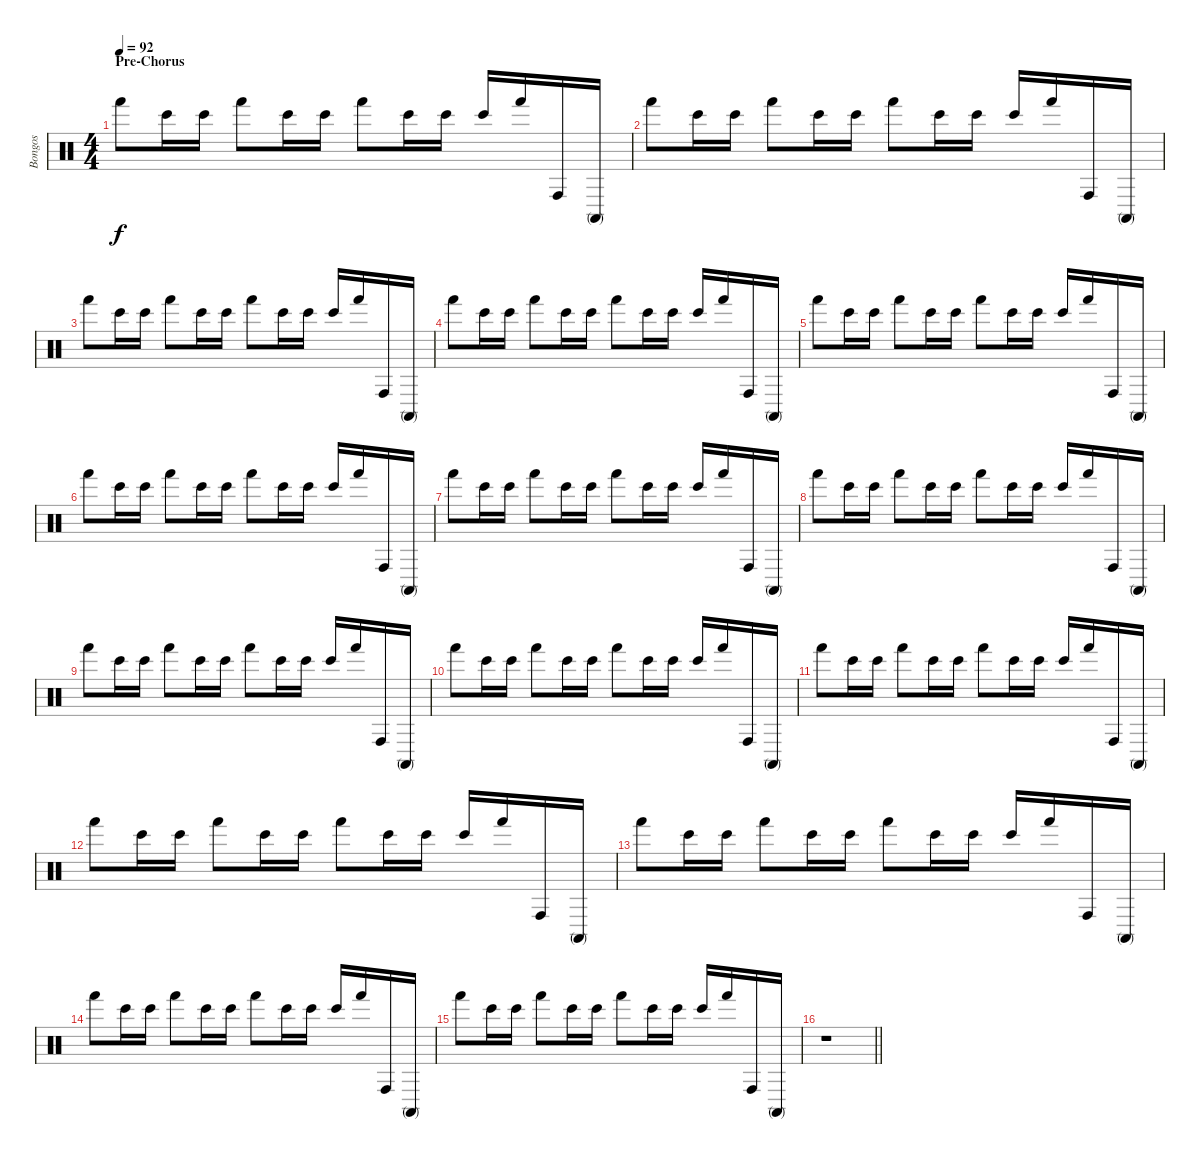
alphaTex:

\track ("Bongos" "Bongos") {instrument percussion}
\staff {score}
\articulation defaults
\ts (4 4)
\section ("" "Pre-Chorus")
\tempo 92
\clef neutral
\ks c "Hand (hit)".8{dy f volume 8} "Bongo High (hit)".16 "Bongo High (hit)".16 "Hand (hit)".8 "Bongo High (hit)".16 "Bongo High (hit)".16 "Hand (hit)".8 "Bongo High (hit)".16 "Bongo High (hit)".16 "Bongo High (hit)".16 "Hand (hit)".16 "Conga high (hit)".16 "Conga high (mute)".16
|
"Hand (hit)".8 "Bongo High (hit)".16 "Bongo High (hit)".16 "Hand (hit)".8 "Bongo High (hit)".16 "Bongo High (hit)".16 "Hand (hit)".8 "Bongo High (hit)".16 "Bongo High (hit)".16 "Bongo High (hit)".16 "Hand (hit)".16 "Conga high (hit)".16 "Conga high (mute)".16 |
"Hand (hit)".8{volume 8} "Bongo High (hit)".16 "Bongo High (hit)".16 "Hand (hit)".8 "Bongo High (hit)".16 "Bongo High (hit)".16 "Hand (hit)".8 "Bongo High (hit)".16 "Bongo High (hit)".16 "Bongo High (hit)".16 "Hand (hit)".16 "Conga high (hit)".16 "Conga high (mute)".16 |
"Hand (hit)".8 "Bongo High (hit)".16 "Bongo High (hit)".16 "Hand (hit)".8 "Bongo High (hit)".16 "Bongo High (hit)".16 "Hand (hit)".8 "Bongo High (hit)".16 "Bongo High (hit)".16 "Bongo High (hit)".16 "Hand (hit)".16 "Conga high (hit)".16 "Conga high (mute)".16 |
"Hand (hit)".8{volume 8} "Bongo High (hit)".16 "Bongo High (hit)".16 "Hand (hit)".8 "Bongo High (hit)".16 "Bongo High (hit)".16 "Hand (hit)".8 "Bongo High (hit)".16 "Bongo High (hit)".16 "Bongo High (hit)".16 "Hand (hit)".16 "Conga high (hit)".16 "Conga high (mute)".16 |
"Hand (hit)".8 "Bongo High (hit)".16 "Bongo High (hit)".16 "Hand (hit)".8 "Bongo High (hit)".16 "Bongo High (hit)".16 "Hand (hit)".8 "Bongo High (hit)".16 "Bongo High (hit)".16 "Bongo High (hit)".16 "Hand (hit)".16 "Conga high (hit)".16 "Conga high (mute)".16 |
"Hand (hit)".8 "Bongo High (hit)".16 "Bongo High (hit)".16 "Hand (hit)".8 "Bongo High (hit)".16 "Bongo High (hit)".16 "Hand (hit)".8 "Bongo High (hit)".16 "Bongo High (hit)".16 "Bongo High (hit)".16 "Hand (hit)".16 "Conga high (hit)".16 "Conga high (mute)".16 |
"Hand (hit)".8{volume 8} "Bongo High (hit)".16 "Bongo High (hit)".16 "Hand (hit)".8 "Bongo High (hit)".16 "Bongo High (hit)".16 "Hand (hit)".8 "Bongo High (hit)".16 "Bongo High (hit)".16 "Bongo High (hit)".16 "Hand (hit)".16 "Conga high (hit)".16 "Conga high (mute)".16 |
"Hand (hit)".8{volume 8} "Bongo High (hit)".16 "Bongo High (hit)".16 "Hand (hit)".8 "Bongo High (hit)".16 "Bongo High (hit)".16 "Hand (hit)".8 "Bongo High (hit)".16 "Bongo High (hit)".16 "Bongo High (hit)".16 "Hand (hit)".16 "Conga high (hit)".16 "Conga high (mute)".16 |
"Hand (hit)".8 "Bongo High (hit)".16 "Bongo High (hit)".16 "Hand (hit)".8 "Bongo High (hit)".16 "Bongo High (hit)".16 "Hand (hit)".8 "Bongo High (hit)".16 "Bongo High (hit)".16 "Bongo High (hit)".16 "Hand (hit)".16 "Conga high (hit)".16 "Conga high (mute)".16 |
"Hand (hit)".8{volume 8} "Bongo High (hit)".16 "Bongo High (hit)".16 "Hand (hit)".8 "Bongo High (hit)".16 "Bongo High (hit)".16 "Hand (hit)".8 "Bongo High (hit)".16 "Bongo High (hit)".16 "Bongo High (hit)".16 "Hand (hit)".16 "Conga high (hit)".16 "Conga high (mute)".16 |
"Hand (hit)".8 "Bongo High (hit)".16 "Bongo High (hit)".16 "Hand (hit)".8 "Bongo High (hit)".16 "Bongo High (hit)".16 "Hand (hit)".8 "Bongo High (hit)".16 "Bongo High (hit)".16 "Bongo High (hit)".16 "Hand (hit)".16 "Conga high (hit)".16 "Conga high (mute)".16 |
"Hand (hit)".8{volume 8} "Bongo High (hit)".16 "Bongo High (hit)".16 "Hand (hit)".8 "Bongo High (hit)".16 "Bongo High (hit)".16 "Hand (hit)".8 "Bongo High (hit)".16 "Bongo High (hit)".16 "Bongo High (hit)".16 "Hand (hit)".16 "Conga high (hit)".16 "Conga high (mute)".16 |
"Hand (hit)".8 "Bongo High (hit)".16 "Bongo High (hit)".16 "Hand (hit)".8 "Bongo High (hit)".16 "Bongo High (hit)".16 "Hand (hit)".8 "Bongo High (hit)".16 "Bongo High (hit)".16 "Bongo High (hit)".16 "Hand (hit)".16 "Conga high (hit)".16 "Conga high (mute)".16 |
"Hand (hit)".8 "Bongo High (hit)".16 "Bongo High (hit)".16 "Hand (hit)".8 "Bongo High (hit)".16 "Bongo High (hit)".16 "Hand (hit)".8 "Bongo High (hit)".16 "Bongo High (hit)".16 "Bongo High (hit)".16 "Hand (hit)".16 "Conga high (hit)".16 "Conga high (mute)".16 |
\barLineRight lightlight
r.1
